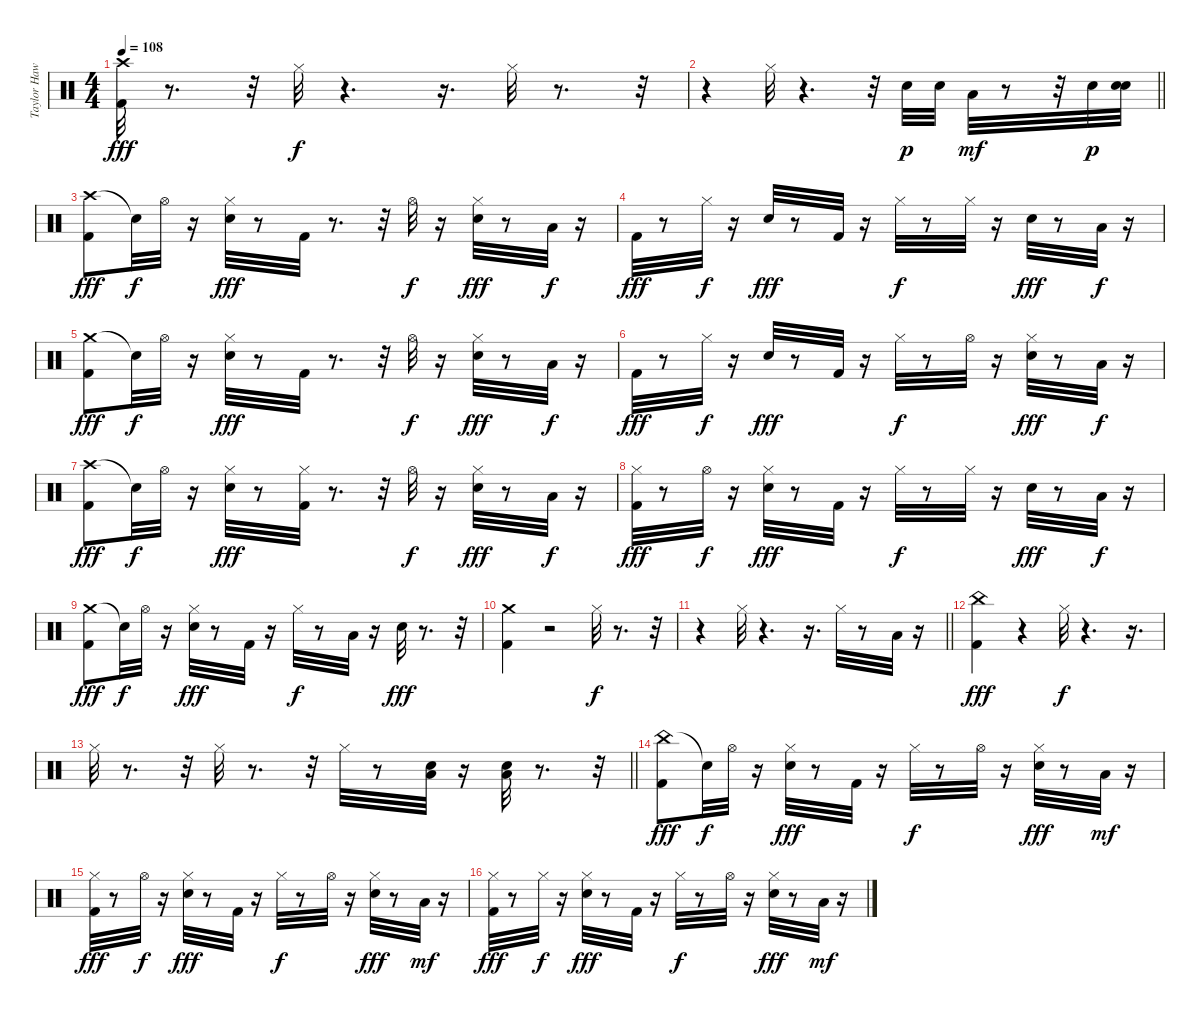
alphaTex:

\track ("Taylor Hawkins" "Taylor Haw") {instrument percussion}
\staff {score}
\articulation defaults
\ts (4 4)
\tempo 108
\clef neutral
\ks c
("Crash high (hit)" "Kick (hit) 2").32{dy fff} r.8{d} r.32 "Hi-Hat (closed)".32{dy f} r.4{d} r.16{d} "Hi-Hat (closed)".32 r.8{d} r.32 |
\barLineRight lightlight
r.4 "Hi-Hat (closed)".32 r.4{d} r.32 "Snare (hit) 2".32{dy p} "Snare (hit) 2".32 "Low Floor Tom (hit)".32{dy mf} r.8 r.32 "Snare (hit) 2".32{dy p} ("Snare (hit) 2" "Snare (hit) 2").32 |
("Crash high (hit)" "Kick (hit) 2").8{dy fff} "Snare (hit)"{t}.32{dy f} "Hi-Hat (open)".32 r.16 ("Hi-Hat (closed)" "Snare (hit) 2").32{dy fff} r.8 "Kick (hit) 2".32 r.8{d} r.32 "Hi-Hat (open)".32{dy f} r.16 ("Hi-Hat (closed)" "Snare (hit) 2").32{dy fff} r.8 "Low Tom (hit)".32{dy f} r.16 |
"Kick (hit) 2".32{dy fff} r.8 "Hi-Hat (closed)".32{dy f} r.16 "Snare (hit) 2".32{dy fff} r.8 "Kick (hit) 2".32 r.16 "Hi-Hat (closed)".32{dy f} r.8 "Hi-Hat (closed)".32 r.16 "Snare (hit) 2".32{dy fff} r.8 "Low Floor Tom (hit)".32{dy f} r.16 |
("Crash medium (hit)" "Kick (hit) 2").8{dy fff} "Snare (hit)"{t}.32{dy f} "Hi-Hat (open)".32 r.16 ("Hi-Hat (closed)" "Snare (hit) 2").32{dy fff} r.8 "Kick (hit) 2".32 r.8{d} r.32 "Hi-Hat (open)".32{dy f} r.16 ("Hi-Hat (closed)" "Snare (hit) 2").32{dy fff} r.8 "Low Tom (hit)".32{dy f} r.16 |
"Kick (hit) 2".32{dy fff} r.8 "Hi-Hat (closed)".32{dy f} r.16 "Snare (hit) 2".32{dy fff} r.8 "Kick (hit) 2".32 r.16 "Hi-Hat (closed)".32{dy f} r.8 "Hi-Hat (open)".32 r.16 ("Hi-Hat (closed)" "Snare (hit) 2").32{dy fff} r.8 "Low Floor Tom (hit)".32{dy f} r.16 |
("Crash high (hit)" "Kick (hit) 2").8{dy fff} "Snare (hit)"{t}.32{dy f} "Hi-Hat (open)".32 r.16 ("Hi-Hat (closed)" "Snare (hit) 2").32{dy fff} r.8 ("Hi-Hat (closed)" "Kick (hit) 2").32 r.8{d} r.32 "Hi-Hat (open)".32{dy f} r.16 ("Hi-Hat (closed)" "Snare (hit) 2").32{dy fff} r.8 "Low Tom (hit)".32{dy f} r.16 |
("Hi-Hat (closed)" "Kick (hit) 2").32{dy fff} r.8 "Hi-Hat (open)".32{dy f} r.16 ("Hi-Hat (closed)" "Snare (hit) 2").32{dy fff} r.8 "Kick (hit) 2".32 r.16 "Hi-Hat (closed)".32{dy f} r.8 "Hi-Hat (closed)".32 r.16 "Snare (hit) 2".32{dy fff} r.8 "Low Floor Tom (hit)".32{dy f} r.16 |
("Crash medium (hit)" "Kick (hit) 2").8{dy fff} "Snare (hit)"{t}.32{dy f} "Hi-Hat (open)".32 r.16 ("Hi-Hat (closed)" "Snare (hit) 2").32{dy fff} r.8 "Kick (hit) 2".32 r.16 "Hi-Hat (closed)".32{dy f} r.8 "Low Floor Tom (hit)".32 r.16 "Snare (hit) 2".32{dy fff} r.8{d} r.32 |
("Crash medium (hit)" "Kick (hit) 2").4 r.2 "Hi-Hat (closed)".32{dy f} r.8{d} r.32 |
\barLineRight lightlight
r.4 "Hi-Hat (closed)".32 r.4{d} r.16{d} "Hi-Hat (closed)".32 r.8 "Low Floor Tom (hit)".32 r.16 |
("China (hit)" "Kick (hit) 2").4{dy fff} r.4 "Hi-Hat (closed)".32{dy f} r.4{d} r.16{d} |
\barLineRight lightlight "Hi-Hat (closed)".32
r.8{d} r.32 "Hi-Hat (closed)".32 r.8{d} r.32 "Hi-Hat (closed)".32 r.8 ("Snare (hit) 2" "Low Floor Tom (hit)").32 r.16 ("Snare (hit) 2" "Low Tom (hit)").32 r.8{d} r.32 |
("China (hit)" "Kick (hit) 2").8{dy fff} "Snare (hit)"{t}.32{dy f} "Hi-Hat (open)".32 r.16 ("Hi-Hat (closed)" "Snare (hit) 2").32{dy fff} r.8 "Kick (hit) 2".32 r.16 "Hi-Hat (closed)".32{dy f} r.8 "Hi-Hat (open)".32 r.16 ("Hi-Hat (closed)" "Snare (hit) 2").32{dy fff} r.8 "Low Floor Tom (hit)".32{dy mf} r.16 |
("Hi-Hat (closed)" "Kick (hit) 2").32{dy fff} r.8 "Hi-Hat (open)".32{dy f} r.16 ("Hi-Hat (closed)" "Snare (hit) 2").32{dy fff} r.8 "Kick (hit) 2".32 r.16 "Hi-Hat (closed)".32{dy f} r.8 "Hi-Hat (open)".32 r.16 ("Hi-Hat (closed)" "Snare (hit) 2").32{dy fff} r.8 "Low Floor Tom (hit)".32{dy mf} r.16 |
("Hi-Hat (closed)" "Kick (hit) 2").32{dy fff} r.8 "Hi-Hat (closed)".32{dy f} r.16 ("Hi-Hat (closed)" "Snare (hit) 2").32{dy fff} r.8 "Kick (hit) 2".32 r.16 "Hi-Hat (closed)".32{dy f} r.8 "Hi-Hat (open)".32 r.16 ("Hi-Hat (closed)" "Snare (hit) 2").32{dy fff} r.8 "Low Floor Tom (hit)".32{dy mf} r.16
